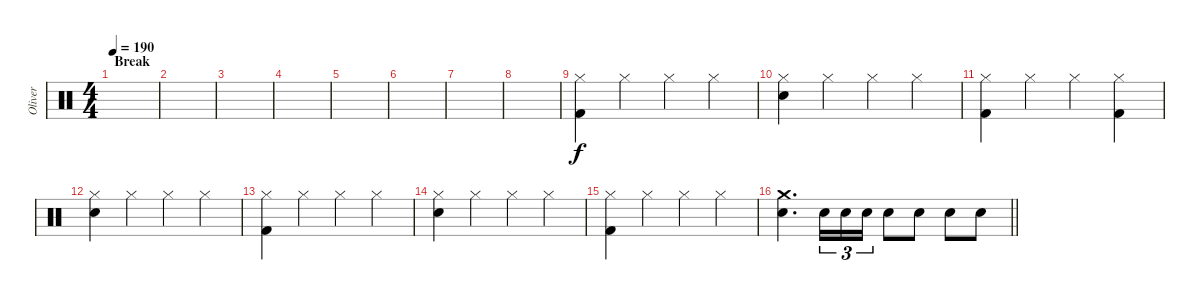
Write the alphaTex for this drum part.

\track ("Oliver" "Oliver") {instrument percussion}
\staff {score}
\articulation defaults
\ts (4 4)
\section ("" "Break")
\tempo 190
\clef neutral
\ks c
|
|
|
|
|
|
|
|
("Hi-Hat (closed)" "Kick (hit) 2").4 "Hi-Hat (closed)".4 "Hi-Hat (closed)".4 "Hi-Hat (closed)".4 |
("Hi-Hat (closed)" "Snare (hit) 2").4 "Hi-Hat (closed)".4 "Hi-Hat (closed)".4 "Hi-Hat (closed)".4 |
("Hi-Hat (closed)" "Kick (hit) 2").4 "Hi-Hat (closed)".4 "Hi-Hat (closed)".4 ("Hi-Hat (closed)" "Kick (hit) 2").4 |
("Hi-Hat (closed)" "Snare (hit) 2").4 "Hi-Hat (closed)".4 "Hi-Hat (closed)".4 "Hi-Hat (closed)".4 |
("Hi-Hat (closed)" "Kick (hit) 2").4 "Hi-Hat (closed)".4 "Hi-Hat (closed)".4 "Hi-Hat (closed)".4 |
("Hi-Hat (closed)" "Snare (hit) 2").4 "Hi-Hat (closed)".4 "Hi-Hat (closed)".4 "Hi-Hat (closed)".4 |
("Hi-Hat (closed)" "Kick (hit) 2").4 "Hi-Hat (closed)".4 "Hi-Hat (closed)".4 "Hi-Hat (closed)".4 |
\barLineRight lightlight
("Crash medium (hit)" "Snare (hit) 2").4{d} "Snare (hit) 2".16{tu (3 2)} "Snare (hit) 2".16{tu (3 2)} "Snare (hit) 2".16{tu (3 2)} "Snare (hit) 2".8 "Snare (hit) 2".8 "Snare (hit) 2".8 "Snare (hit) 2".8
